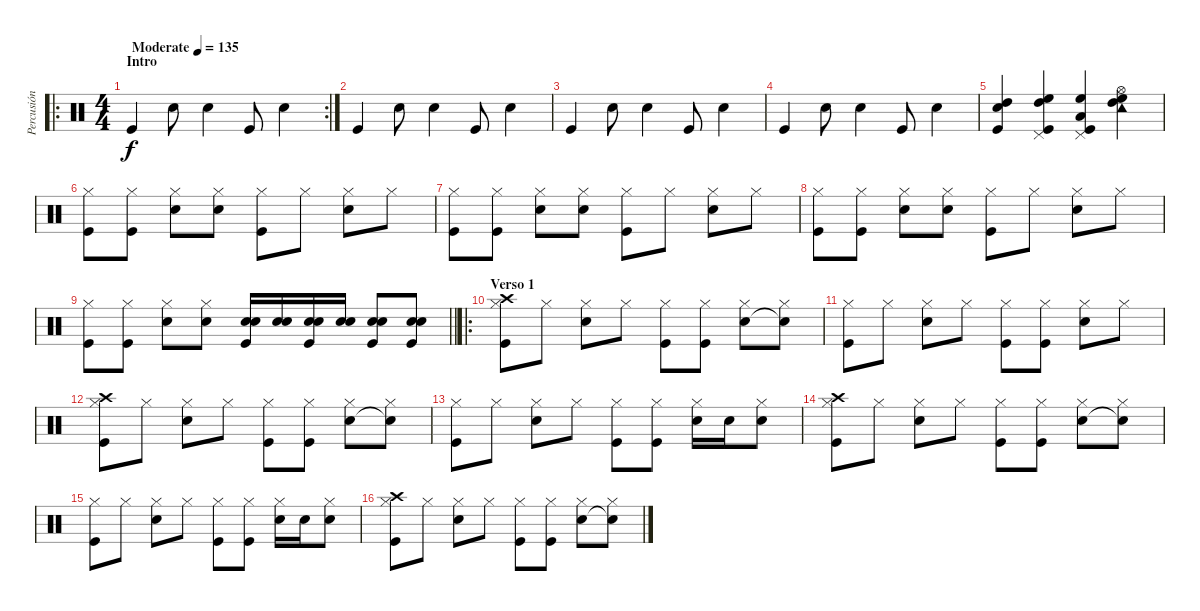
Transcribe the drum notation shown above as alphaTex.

\track ("Percusión" "Percusión") {instrument percussion}
\staff {score}
\articulation defaults
\ro
\rc 2
\ts (4 4)
\section ("" "Intro")
\tempo (135 "Moderate")
\clef neutral
\ks c "Kick (hit)".4{dy f} "Snare (hit) 2".8 "Snare (hit) 2".4 "Kick (hit)".8 "Snare (hit) 2".4
|
"Kick (hit)".4 "Snare (hit) 2".8 "Snare (hit) 2".4 "Kick (hit)".8 "Snare (hit) 2".4 |
"Kick (hit)".4 "Snare (hit) 2".8 "Snare (hit) 2".4 "Kick (hit)".8 "Snare (hit) 2".4 |
"Kick (hit)".4 "Snare (hit) 2".8 "Snare (hit) 2".4 "Kick (hit)".8 "Snare (hit) 2".4 |
("Snare (hit) 2" "High Tom (hit)" "Kick (hit)").4 ("Pedal Hi-Hat (hit)" "High Floor Tom (hit)" "High Tom (hit)" "Kick (hit)").4 ("Pedal Hi-Hat (hit)" "High Floor Tom (hit)" "Low Floor Tom (hit)" "Kick (hit)").4 ("Hi-Hat (open)" "High Floor Tom (hit)" "High Tom (hit)" "Tambourine (hit)").4 |
("Hi-Hat (closed)" "Kick (hit)").8 ("Hi-Hat (closed)" "Kick (hit)").8 ("Hi-Hat (closed)" "Snare (hit) 2").8 ("Hi-Hat (closed)" "Snare (hit) 2").8 ("Hi-Hat (closed)" "Kick (hit)").8 "Hi-Hat (closed)".8 ("Hi-Hat (closed)" "Snare (hit) 2").8 "Hi-Hat (closed)".8 |
("Hi-Hat (closed)" "Kick (hit)").8 ("Hi-Hat (closed)" "Kick (hit)").8 ("Hi-Hat (closed)" "Snare (hit) 2").8 ("Hi-Hat (closed)" "Snare (hit) 2").8 ("Hi-Hat (closed)" "Kick (hit)").8 "Hi-Hat (closed)".8 ("Hi-Hat (closed)" "Snare (hit) 2").8 "Hi-Hat (closed)".8 |
("Hi-Hat (closed)" "Kick (hit)").8 ("Hi-Hat (closed)" "Kick (hit)").8 ("Hi-Hat (closed)" "Snare (hit) 2").8 ("Hi-Hat (closed)" "Snare (hit) 2").8 ("Hi-Hat (closed)" "Kick (hit)").8 "Hi-Hat (closed)".8 ("Hi-Hat (closed)" "Snare (hit) 2").8 "Hi-Hat (closed)".8 |
\barLineRight lightlight
("Hi-Hat (closed)" "Kick (hit)").8 ("Hi-Hat (closed)" "Kick (hit)").8 ("Hi-Hat (closed)" "Snare (hit) 2").8 ("Hi-Hat (closed)" "Snare (hit) 2").8 ("Snare (hit) 2" "Snare (hit) 2" "Kick (hit)").16 ("Snare (hit) 2" "Snare (hit) 2").16 ("Snare (hit) 2" "Snare (hit) 2" "Kick (hit)").16 ("Snare (hit) 2" "Snare (hit) 2").16 ("Snare (hit) 2" "Snare (hit) 2" "Kick (hit)").8 ("Snare (hit) 2" "Snare (hit) 2" "Kick (hit)").8 |
\ro
\section ("" "Verso 1")
("Hi-Hat (closed)" "Crash high (hit)" "Kick (hit)").8 "Hi-Hat (closed)".8 ("Hi-Hat (closed)" "Snare (hit) 2").8 "Hi-Hat (closed)".8 ("Hi-Hat (closed)" "Kick (hit)").8 ("Hi-Hat (closed)" "Kick (hit)").8 ("Hi-Hat (closed)" "Snare (hit) 2").8 ("Hi-Hat (closed)" "Snare (hit)"{t}).8 |
("Hi-Hat (closed)" "Kick (hit)").8 "Hi-Hat (closed)".8 ("Hi-Hat (closed)" "Snare (hit) 2").8 "Hi-Hat (closed)".8 ("Hi-Hat (closed)" "Kick (hit)").8 ("Hi-Hat (closed)" "Kick (hit)").8 ("Hi-Hat (closed)" "Snare (hit) 2").8 "Hi-Hat (closed)".8 |
("Hi-Hat (closed)" "Crash high (hit)" "Kick (hit)").8 "Hi-Hat (closed)".8 ("Hi-Hat (closed)" "Snare (hit) 2").8 "Hi-Hat (closed)".8 ("Hi-Hat (closed)" "Kick (hit)").8 ("Hi-Hat (closed)" "Kick (hit)").8 ("Hi-Hat (closed)" "Snare (hit) 2").8 ("Hi-Hat (closed)" "Snare (hit)"{t}).8 |
("Hi-Hat (closed)" "Kick (hit)").8 "Hi-Hat (closed)".8 ("Hi-Hat (closed)" "Snare (hit) 2").8 "Hi-Hat (closed)".8 ("Hi-Hat (closed)" "Kick (hit)").8 ("Hi-Hat (closed)" "Kick (hit)").8 ("Hi-Hat (closed)" "Snare (hit) 2").16 "Snare (hit) 2".16 ("Hi-Hat (closed)" "Snare (hit) 2").8 |
("Hi-Hat (closed)" "Crash high (hit)" "Kick (hit)").8 "Hi-Hat (closed)".8 ("Hi-Hat (closed)" "Snare (hit) 2").8 "Hi-Hat (closed)".8 ("Hi-Hat (closed)" "Kick (hit)").8 ("Hi-Hat (closed)" "Kick (hit)").8 ("Hi-Hat (closed)" "Snare (hit) 2").8 ("Hi-Hat (closed)" "Snare (hit)"{t}).8 |
("Hi-Hat (closed)" "Kick (hit)").8 "Hi-Hat (closed)".8 ("Hi-Hat (closed)" "Snare (hit) 2").8 "Hi-Hat (closed)".8 ("Hi-Hat (closed)" "Kick (hit)").8 ("Hi-Hat (closed)" "Kick (hit)").8 ("Hi-Hat (closed)" "Snare (hit) 2").16 "Snare (hit) 2".16 ("Hi-Hat (closed)" "Snare (hit) 2").8 |
("Hi-Hat (closed)" "Crash high (hit)" "Kick (hit)").8 "Hi-Hat (closed)".8 ("Hi-Hat (closed)" "Snare (hit) 2").8 "Hi-Hat (closed)".8 ("Hi-Hat (closed)" "Kick (hit)").8 ("Hi-Hat (closed)" "Kick (hit)").8 ("Hi-Hat (closed)" "Snare (hit) 2").8 ("Hi-Hat (closed)" "Snare (hit)"{t}).8
